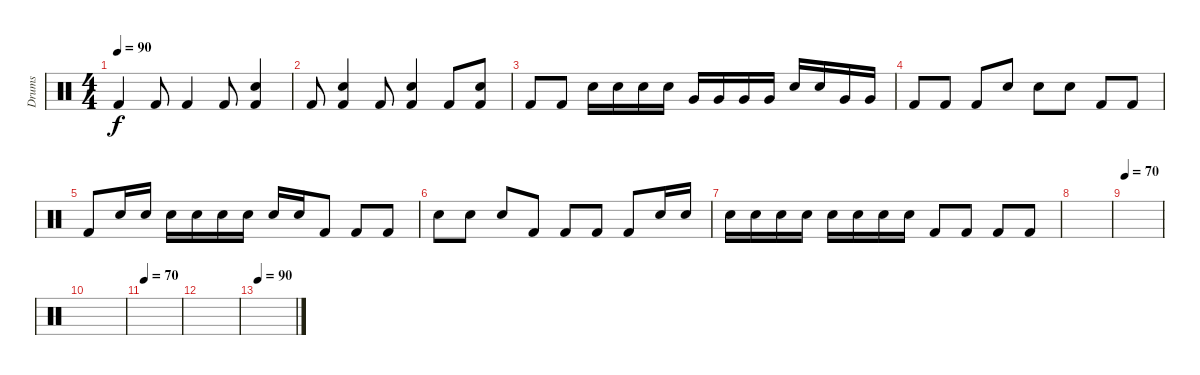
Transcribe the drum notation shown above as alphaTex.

\track ("Drums" "Drums") {instrument percussion}
\staff {score}
\articulation defaults
\ts (4 4)
\tempo 90
\clef neutral
\ks c "Kick (hit) 2".4{dy f} "Kick (hit) 2".8 "Kick (hit) 2".4 "Kick (hit) 2".8
("Kick (hit) 2" "Snare (hit) 2").4 |
"Kick (hit) 2".8 ("Kick (hit) 2" "Snare (hit) 2").4 "Kick (hit) 2".8 ("Kick (hit) 2" "Snare (hit) 2").4 "Kick (hit) 2".8 ("Kick (hit) 2" "Snare (hit) 2").8 |
"Kick (hit) 2".8 "Kick (hit) 2".8 "Snare (hit) 2".16 "Snare (hit) 2".16 "Snare (hit) 2".16 "Snare (hit) 2".16 "Very Low Tom (hit)".16 "Very Low Tom (hit)".16 "Very Low Tom (hit)".16 "Very Low Tom (hit)".16 "Snare (hit) 2".16 "Snare (hit) 2".16 "Very Low Tom (hit)".16 "Very Low Tom (hit)".16 |
"Kick (hit) 2".8 "Kick (hit) 2".8 "Kick (hit) 2".8 "Snare (hit) 2".8 "Snare (hit) 2".8 "Snare (hit) 2".8 "Kick (hit) 2".8 "Kick (hit) 2".8 |
"Kick (hit) 2".8 "Snare (hit) 2".16 "Snare (hit) 2".16 "Snare (hit) 2".16 "Snare (hit) 2".16 "Snare (hit) 2".16 "Snare (hit) 2".16 "Snare (hit) 2".16 "Snare (hit) 2".16 "Kick (hit) 2".8 "Kick (hit) 2".8 "Kick (hit) 2".8 |
"Snare (hit) 2".8 "Snare (hit) 2".8 "Snare (hit) 2".8 "Kick (hit) 2".8 "Kick (hit) 2".8 "Kick (hit) 2".8 "Kick (hit) 2".8 "Snare (hit) 2".16 "Snare (hit) 2".16 |
"Snare (hit) 2".16 "Snare (hit) 2".16 "Snare (hit) 2".16 "Snare (hit) 2".16 "Snare (hit) 2".16 "Snare (hit) 2".16 "Snare (hit) 2".16 "Snare (hit) 2".16 "Kick (hit) 2".8 "Kick (hit) 2".8 "Kick (hit) 2".8 "Kick (hit) 2".8 |
|
\tempo 70
|
|
\tempo 70
|
|
\tempo 90
